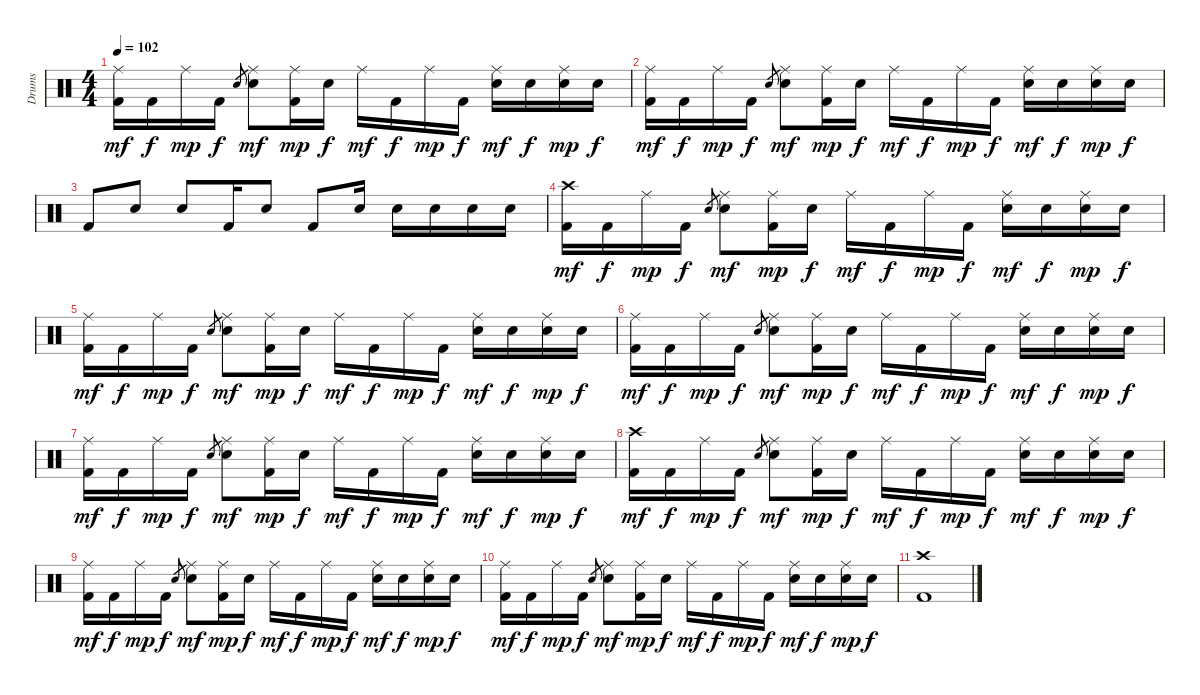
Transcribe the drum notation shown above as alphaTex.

\track ("Drums" "Drums") {instrument percussion}
\staff {score}
\articulation defaults
\ts (4 4)
\tempo 102
\clef neutral
\ks c
("Ride (middle)" "Kick (hit) 2").16{dy mf} "Kick (hit) 2".16{dy f} "Ride (middle)".16{dy mp} "Kick (hit) 2".16{dy f} "Snare (hit) 2".8{gr} ("Ride (middle)" "Snare (hit) 2").8{dy mf} ("Ride (middle)" "Kick (hit) 2").16{dy mp} "Snare (hit) 2".16{dy f} "Ride (middle)".16{dy mf} "Kick (hit) 2".16{dy f} "Ride (middle)".16{dy mp} "Kick (hit) 2".16{dy f} ("Ride (middle)" "Snare (hit) 2").16{dy mf} "Snare (hit) 2".16{dy f} ("Ride (middle)" "Snare (hit) 2").16{dy mp} "Snare (hit) 2".16{dy f} |
("Ride (middle)" "Kick (hit) 2").16{dy mf} "Kick (hit) 2".16{dy f} "Ride (middle)".16{dy mp} "Kick (hit) 2".16{dy f} "Snare (hit) 2".8{gr} ("Ride (middle)" "Snare (hit) 2").8{dy mf} ("Ride (middle)" "Kick (hit) 2").16{dy mp} "Snare (hit) 2".16{dy f} "Ride (middle)".16{dy mf} "Kick (hit) 2".16{dy f} "Ride (middle)".16{dy mp} "Kick (hit) 2".16{dy f} ("Ride (middle)" "Snare (hit) 2").16{dy mf} "Snare (hit) 2".16{dy f} ("Ride (middle)" "Snare (hit) 2").16{dy mp} "Snare (hit) 2".16{dy f} |
"Kick (hit) 2".8 "Snare (hit) 2".8 "Snare (hit) 2".8 "Kick (hit) 2".16 "Snare (hit) 2".8 "Kick (hit) 2".8 "Snare (hit) 2".16 "Snare (hit) 2".16 "Snare (hit) 2".16 "Snare (hit) 2".16 "Snare (hit) 2".16 |
("Crash high (hit)" "Kick (hit) 2").16{dy mf} "Kick (hit) 2".16{dy f} "Ride (middle)".16{dy mp} "Kick (hit) 2".16{dy f} "Snare (hit) 2".8{gr} ("Ride (middle)" "Snare (hit) 2").8{dy mf} ("Ride (middle)" "Kick (hit) 2").16{dy mp} "Snare (hit) 2".16{dy f} "Ride (middle)".16{dy mf} "Kick (hit) 2".16{dy f} "Ride (middle)".16{dy mp} "Kick (hit) 2".16{dy f} ("Ride (middle)" "Snare (hit) 2").16{dy mf} "Snare (hit) 2".16{dy f} ("Ride (middle)" "Snare (hit) 2").16{dy mp} "Snare (hit) 2".16{dy f} |
("Ride (middle)" "Kick (hit) 2").16{dy mf} "Kick (hit) 2".16{dy f} "Ride (middle)".16{dy mp} "Kick (hit) 2".16{dy f} "Snare (hit) 2".8{gr} ("Ride (middle)" "Snare (hit) 2").8{dy mf} ("Ride (middle)" "Kick (hit) 2").16{dy mp} "Snare (hit) 2".16{dy f} "Ride (middle)".16{dy mf} "Kick (hit) 2".16{dy f} "Ride (middle)".16{dy mp} "Kick (hit) 2".16{dy f} ("Ride (middle)" "Snare (hit) 2").16{dy mf} "Snare (hit) 2".16{dy f} ("Ride (middle)" "Snare (hit) 2").16{dy mp} "Snare (hit) 2".16{dy f} |
("Ride (middle)" "Kick (hit) 2").16{dy mf} "Kick (hit) 2".16{dy f} "Ride (middle)".16{dy mp} "Kick (hit) 2".16{dy f} "Snare (hit) 2".8{gr} ("Ride (middle)" "Snare (hit) 2").8{dy mf} ("Ride (middle)" "Kick (hit) 2").16{dy mp} "Snare (hit) 2".16{dy f} "Ride (middle)".16{dy mf} "Kick (hit) 2".16{dy f} "Ride (middle)".16{dy mp} "Kick (hit) 2".16{dy f} ("Ride (middle)" "Snare (hit) 2").16{dy mf} "Snare (hit) 2".16{dy f} ("Ride (middle)" "Snare (hit) 2").16{dy mp} "Snare (hit) 2".16{dy f} |
("Ride (middle)" "Kick (hit) 2").16{dy mf} "Kick (hit) 2".16{dy f} "Ride (middle)".16{dy mp} "Kick (hit) 2".16{dy f} "Snare (hit) 2".8{gr} ("Ride (middle)" "Snare (hit) 2").8{dy mf} ("Ride (middle)" "Kick (hit) 2").16{dy mp} "Snare (hit) 2".16{dy f} "Ride (middle)".16{dy mf} "Kick (hit) 2".16{dy f} "Ride (middle)".16{dy mp} "Kick (hit) 2".16{dy f} ("Ride (middle)" "Snare (hit) 2").16{dy mf} "Snare (hit) 2".16{dy f} ("Ride (middle)" "Snare (hit) 2").16{dy mp} "Snare (hit) 2".16{dy f} |
("Crash high (hit)" "Kick (hit) 2").16{dy mf} "Kick (hit) 2".16{dy f} "Ride (middle)".16{dy mp} "Kick (hit) 2".16{dy f} "Snare (hit) 2".8{gr} ("Ride (middle)" "Snare (hit) 2").8{dy mf} ("Ride (middle)" "Kick (hit) 2").16{dy mp} "Snare (hit) 2".16{dy f} "Ride (middle)".16{dy mf} "Kick (hit) 2".16{dy f} "Ride (middle)".16{dy mp} "Kick (hit) 2".16{dy f} ("Ride (middle)" "Snare (hit) 2").16{dy mf} "Snare (hit) 2".16{dy f} ("Ride (middle)" "Snare (hit) 2").16{dy mp} "Snare (hit) 2".16{dy f} |
("Ride (middle)" "Kick (hit) 2").16{dy mf} "Kick (hit) 2".16{dy f} "Ride (middle)".16{dy mp} "Kick (hit) 2".16{dy f} "Snare (hit) 2".8{gr} ("Ride (middle)" "Snare (hit) 2").8{dy mf} ("Ride (middle)" "Kick (hit) 2").16{dy mp} "Snare (hit) 2".16{dy f} "Ride (middle)".16{dy mf} "Kick (hit) 2".16{dy f} "Ride (middle)".16{dy mp} "Kick (hit) 2".16{dy f} ("Ride (middle)" "Snare (hit) 2").16{dy mf} "Snare (hit) 2".16{dy f} ("Ride (middle)" "Snare (hit) 2").16{dy mp} "Snare (hit) 2".16{dy f} |
("Ride (middle)" "Kick (hit) 2").16{dy mf} "Kick (hit) 2".16{dy f} "Ride (middle)".16{dy mp} "Kick (hit) 2".16{dy f} "Snare (hit) 2".8{gr} ("Ride (middle)" "Snare (hit) 2").8{dy mf} ("Ride (middle)" "Kick (hit) 2").16{dy mp} "Snare (hit) 2".16{dy f} "Ride (middle)".16{dy mf} "Kick (hit) 2".16{dy f} "Ride (middle)".16{dy mp} "Kick (hit) 2".16{dy f} ("Ride (middle)" "Snare (hit) 2").16{dy mf} "Snare (hit) 2".16{dy f} ("Ride (middle)" "Snare (hit) 2").16{dy mp} "Snare (hit) 2".16{dy f} |
("Crash high (hit)" "Kick (hit) 2").1
